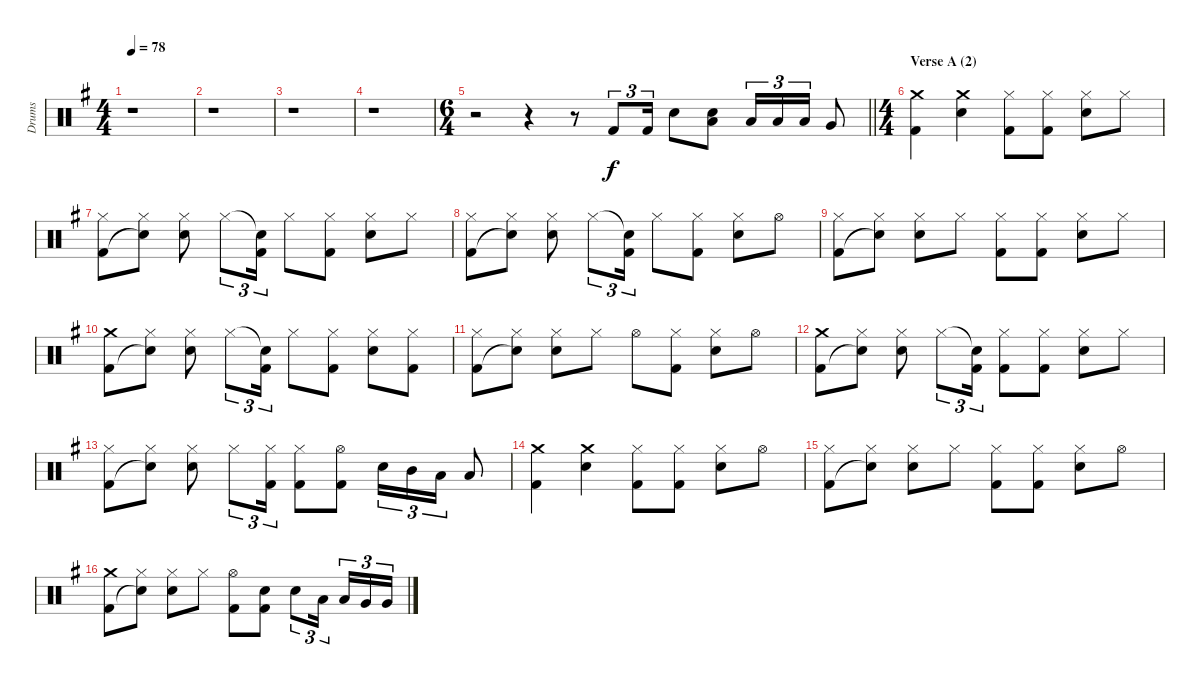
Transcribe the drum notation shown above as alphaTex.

\track ("Drums" "Drums") {instrument percussion}
\staff {score}
\articulation defaults
\ts (4 4)
\tempo 78
\clef neutral
\ks g
r.1{dy f} |
r.1 |
r.1 |
r.1 |
\ts (6 4)
\barLineRight lightlight
r.2 r.4 r.8 "Kick (hit) 2".8{tu (3 2)} "Kick (hit) 2".16{tu (3 2)} "Electric Snare (hit)".8 ("Electric Snare (hit)" "Low Tom (hit)").8 "Low Tom (hit)".16{tu (3 2)} "Low Tom (hit)".16{tu (3 2)} "Low Tom (hit)".16{tu (3 2)} "Very Low Tom (hit)".8 |
\ts (4 4)
\section ("" "Verse A (2)")
("Crash medium (hit)" "Kick (hit) 2").4 ("Crash medium (hit)" "Electric Snare (hit)").4 ("Hi-Hat (closed)" "Kick (hit) 2").8 ("Hi-Hat (closed)" "Kick (hit) 2").8 ("Hi-Hat (closed)" "Electric Snare (hit)").8 "Hi-Hat (closed)".8 |
("Hi-Hat (closed)" "Kick (hit) 2").8 ("Hi-Hat (closed)" "Snare (hit)"{t}).8 ("Hi-Hat (closed)" "Electric Snare (hit)").8 "Hi-Hat (closed)".8{tu (3 2)} ("Snare (hit)"{t} "Kick (hit) 2").16{tu (3 2)} "Hi-Hat (closed)".8 ("Hi-Hat (closed)" "Kick (hit) 2").8 ("Hi-Hat (closed)" "Electric Snare (hit)").8 "Hi-Hat (closed)".8 |
("Hi-Hat (closed)" "Kick (hit) 2").8 ("Hi-Hat (closed)" "Snare (hit)"{t}).8 ("Hi-Hat (closed)" "Electric Snare (hit)").8 "Hi-Hat (closed)".8{tu (3 2)} ("Snare (hit)"{t} "Kick (hit) 2").16{tu (3 2)} "Hi-Hat (closed)".8 ("Hi-Hat (closed)" "Kick (hit) 2").8 ("Hi-Hat (closed)" "Electric Snare (hit)").8 "Hi-Hat (open)".8 |
("Hi-Hat (closed)" "Kick (hit) 2").8 ("Hi-Hat (closed)" "Snare (hit)"{t}).8 ("Hi-Hat (closed)" "Electric Snare (hit)").8 "Hi-Hat (closed)".8 ("Hi-Hat (closed)" "Kick (hit) 2").8 ("Hi-Hat (closed)" "Kick (hit) 2").8 ("Hi-Hat (closed)" "Electric Snare (hit)").8 "Hi-Hat (closed)".8 |
("Crash medium (hit)" "Kick (hit) 2").8 ("Hi-Hat (closed)" "Snare (hit)"{t}).8 ("Hi-Hat (closed)" "Electric Snare (hit)").8 "Hi-Hat (closed)".8{tu (3 2)} ("Snare (hit)"{t} "Kick (hit) 2").16{tu (3 2)} "Hi-Hat (closed)".8 ("Hi-Hat (closed)" "Kick (hit) 2").8 ("Hi-Hat (closed)" "Electric Snare (hit)").8 ("Hi-Hat (closed)" "Kick (hit) 2").8 |
("Hi-Hat (closed)" "Kick (hit) 2").8 ("Hi-Hat (closed)" "Snare (hit)"{t}).8 ("Hi-Hat (closed)" "Electric Snare (hit)").8 "Hi-Hat (closed)".8 "Hi-Hat (open)".8 ("Hi-Hat (closed)" "Kick (hit) 2").8 ("Hi-Hat (closed)" "Electric Snare (hit)").8 "Hi-Hat (open)".8 |
("Crash medium (hit)" "Kick (hit) 2").8 ("Hi-Hat (closed)" "Snare (hit)"{t}).8 ("Hi-Hat (closed)" "Electric Snare (hit)").8 "Hi-Hat (closed)".8{tu (3 2)} ("Snare (hit)"{t} "Kick (hit) 2").16{tu (3 2)} ("Hi-Hat (closed)" "Kick (hit) 2").8 ("Hi-Hat (closed)" "Kick (hit) 2").8 ("Hi-Hat (closed)" "Electric Snare (hit)").8 "Hi-Hat (closed)".8 |
("Hi-Hat (closed)" "Kick (hit) 2").8 ("Hi-Hat (closed)" "Snare (hit)"{t}).8 ("Hi-Hat (closed)" "Electric Snare (hit)").8 "Hi-Hat (closed)".8{tu (3 2)} ("Hi-Hat (closed)" "Kick (hit) 2").16{tu (3 2)} ("Hi-Hat (closed)" "Kick (hit) 2").8 ("Hi-Hat (open)" "Kick (hit) 2").8 "Electric Snare (hit)".16{tu (3 2)} "Mid Tom (hit)".16{tu (3 2)} "Low Tom (hit)".16{tu (3 2)} "Low Tom (hit)".8 |
("Crash medium (hit)" "Kick (hit) 2").4 ("Crash medium (hit)" "Electric Snare (hit)").4 ("Hi-Hat (closed)" "Kick (hit) 2").8 ("Hi-Hat (closed)" "Kick (hit) 2").8 ("Hi-Hat (closed)" "Electric Snare (hit)").8 "Hi-Hat (open)".8 |
("Hi-Hat (closed)" "Kick (hit) 2").8 ("Hi-Hat (closed)" "Snare (hit)"{t}).8 ("Hi-Hat (closed)" "Electric Snare (hit)").8 "Hi-Hat (closed)".8 ("Hi-Hat (closed)" "Kick (hit) 2").8 ("Hi-Hat (closed)" "Kick (hit) 2").8 ("Hi-Hat (closed)" "Electric Snare (hit)").8 "Hi-Hat (open)".8 |
("Crash medium (hit)" "Kick (hit) 2").8 ("Hi-Hat (closed)" "Snare (hit)"{t}).8 ("Hi-Hat (closed)" "Electric Snare (hit)").8 "Hi-Hat (closed)".8 ("Hi-Hat (open)" "Kick (hit) 2").8 ("Electric Snare (hit)" "Kick (hit) 2").8 "Electric Snare (hit)".8{tu (3 2)} "Low Tom (hit)".16{tu (3 2)} "Low Tom (hit)".16{tu (3 2)} "Very Low Tom (hit)".16{tu (3 2)} "Very Low Tom (hit)".16{tu (3 2)}
